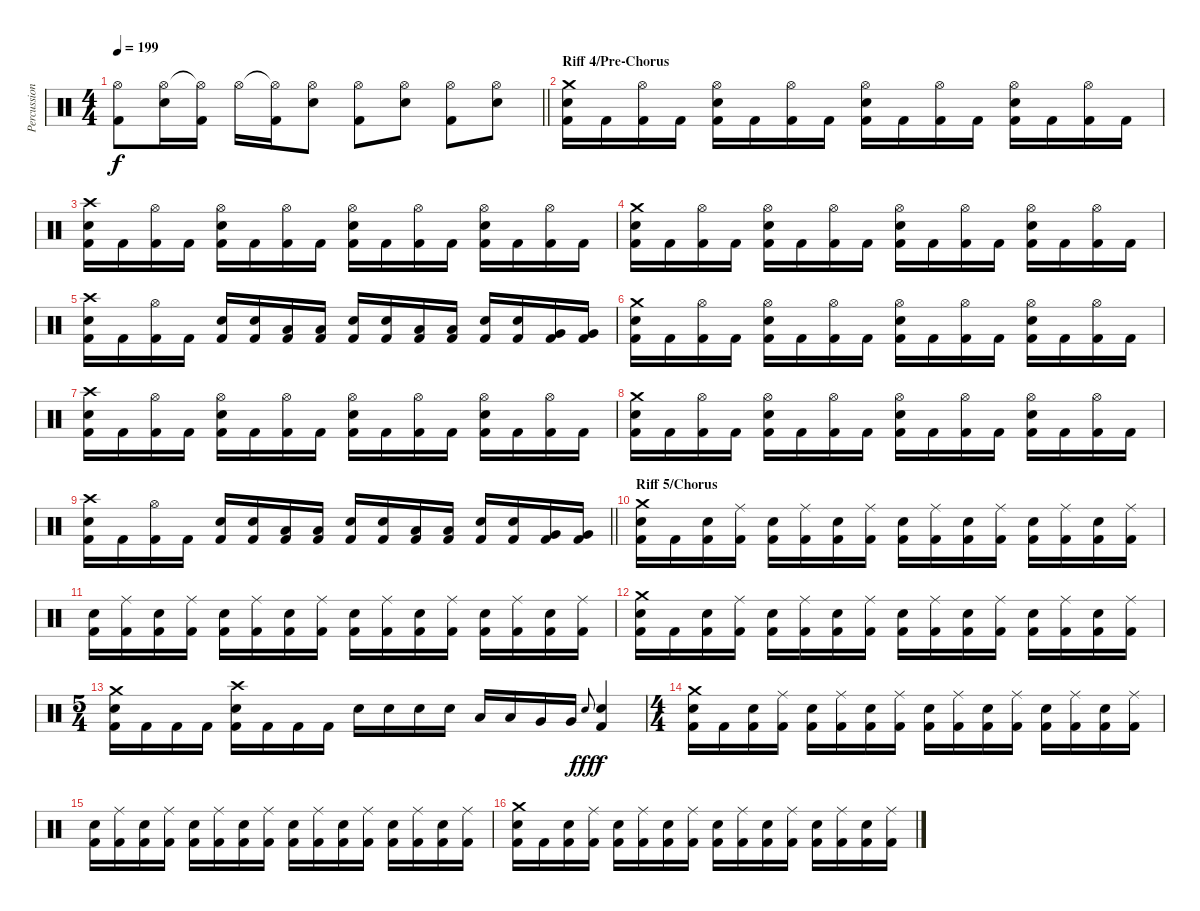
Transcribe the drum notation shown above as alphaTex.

\track ("Percussion" "Percussion") {instrument percussion}
\staff {score}
\articulation defaults
\ts (4 4)
\tempo 199
\clef neutral
\barLineRight lightlight
\ks c
("Hi-Hat (open)" "Kick (hit) 2").8{dy f} ("Hi-Hat (open)" "Electric Snare (hit)").16 ("Hi-Hat (open)"{t} "Kick (hit) 2").16 "Hi-Hat (open)".16 ("Hi-Hat (open)"{t} "Kick (hit) 2").16 ("Hi-Hat (open)" "Electric Snare (hit)").8 ("Hi-Hat (open)" "Kick (hit) 2").8 ("Hi-Hat (open)" "Electric Snare (hit)").8 ("Hi-Hat (open)" "Kick (hit) 2").8 ("Hi-Hat (open)" "Electric Snare (hit)").8 |
\section ("" "Riff 4/Pre-Chorus")
("Crash medium (hit)" "Electric Snare (hit)" "Kick (hit) 2").16 "Kick (hit) 2".16 ("Hi-Hat (open)" "Kick (hit) 2").16 "Kick (hit) 2".16 ("Hi-Hat (open)" "Electric Snare (hit)" "Kick (hit) 2").16 "Kick (hit) 2".16 ("Hi-Hat (open)" "Kick (hit) 2").16 "Kick (hit) 2".16 ("Hi-Hat (open)" "Electric Snare (hit)" "Kick (hit) 2").16 "Kick (hit) 2".16 ("Hi-Hat (open)" "Kick (hit) 2").16 "Kick (hit) 2".16 ("Hi-Hat (open)" "Electric Snare (hit)" "Kick (hit) 2").16 "Kick (hit) 2".16 ("Hi-Hat (open)" "Kick (hit) 2").16 "Kick (hit) 2".16 |
("Crash high (hit)" "Electric Snare (hit)" "Kick (hit) 2").16 "Kick (hit) 2".16 ("Hi-Hat (open)" "Kick (hit) 2").16 "Kick (hit) 2".16 ("Hi-Hat (open)" "Electric Snare (hit)" "Kick (hit) 2").16 "Kick (hit) 2".16 ("Hi-Hat (open)" "Kick (hit) 2").16 "Kick (hit) 2".16 ("Hi-Hat (open)" "Electric Snare (hit)" "Kick (hit) 2").16 "Kick (hit) 2".16 ("Hi-Hat (open)" "Kick (hit) 2").16 "Kick (hit) 2".16 ("Hi-Hat (open)" "Electric Snare (hit)" "Kick (hit) 2").16 "Kick (hit) 2".16 ("Hi-Hat (open)" "Kick (hit) 2").16 "Kick (hit) 2".16 |
("Crash medium (hit)" "Electric Snare (hit)" "Kick (hit) 2").16 "Kick (hit) 2".16 ("Hi-Hat (open)" "Kick (hit) 2").16 "Kick (hit) 2".16 ("Hi-Hat (open)" "Electric Snare (hit)" "Kick (hit) 2").16 "Kick (hit) 2".16 ("Hi-Hat (open)" "Kick (hit) 2").16 "Kick (hit) 2".16 ("Hi-Hat (open)" "Electric Snare (hit)" "Kick (hit) 2").16 "Kick (hit) 2".16 ("Hi-Hat (open)" "Kick (hit) 2").16 "Kick (hit) 2".16 ("Hi-Hat (open)" "Electric Snare (hit)" "Kick (hit) 2").16 "Kick (hit) 2".16 ("Hi-Hat (open)" "Kick (hit) 2").16 "Kick (hit) 2".16 |
("Crash high (hit)" "Electric Snare (hit)" "Kick (hit) 2").16 "Kick (hit) 2".16 ("Hi-Hat (open)" "Kick (hit) 2").16 "Kick (hit) 2".16 ("Electric Snare (hit)" "Kick (hit) 2").16 ("Electric Snare (hit)" "Kick (hit) 2").16 ("Low Tom (hit)" "Kick (hit) 2").16 ("Low Tom (hit)" "Kick (hit) 2").16 ("Electric Snare (hit)" "Kick (hit) 2").16 ("Electric Snare (hit)" "Kick (hit) 2").16 ("Low Floor Tom (hit)" "Kick (hit) 2").16 ("Low Floor Tom (hit)" "Kick (hit) 2").16 ("Electric Snare (hit)" "Kick (hit) 2").16 ("Electric Snare (hit)" "Kick (hit) 2").16 ("Very Low Tom (hit)" "Kick (hit) 2").16 ("Very Low Tom (hit)" "Kick (hit) 2").16 |
("Crash medium (hit)" "Electric Snare (hit)" "Kick (hit) 2").16 "Kick (hit) 2".16 ("Hi-Hat (open)" "Kick (hit) 2").16 "Kick (hit) 2".16 ("Hi-Hat (open)" "Electric Snare (hit)" "Kick (hit) 2").16 "Kick (hit) 2".16 ("Hi-Hat (open)" "Kick (hit) 2").16 "Kick (hit) 2".16 ("Hi-Hat (open)" "Electric Snare (hit)" "Kick (hit) 2").16 "Kick (hit) 2".16 ("Hi-Hat (open)" "Kick (hit) 2").16 "Kick (hit) 2".16 ("Hi-Hat (open)" "Electric Snare (hit)" "Kick (hit) 2").16 "Kick (hit) 2".16 ("Hi-Hat (open)" "Kick (hit) 2").16 "Kick (hit) 2".16 |
("Crash high (hit)" "Electric Snare (hit)" "Kick (hit) 2").16 "Kick (hit) 2".16 ("Hi-Hat (open)" "Kick (hit) 2").16 "Kick (hit) 2".16 ("Hi-Hat (open)" "Electric Snare (hit)" "Kick (hit) 2").16 "Kick (hit) 2".16 ("Hi-Hat (open)" "Kick (hit) 2").16 "Kick (hit) 2".16 ("Hi-Hat (open)" "Electric Snare (hit)" "Kick (hit) 2").16 "Kick (hit) 2".16 ("Hi-Hat (open)" "Kick (hit) 2").16 "Kick (hit) 2".16 ("Hi-Hat (open)" "Electric Snare (hit)" "Kick (hit) 2").16 "Kick (hit) 2".16 ("Hi-Hat (open)" "Kick (hit) 2").16 "Kick (hit) 2".16 |
("Crash medium (hit)" "Electric Snare (hit)" "Kick (hit) 2").16 "Kick (hit) 2".16 ("Hi-Hat (open)" "Kick (hit) 2").16 "Kick (hit) 2".16 ("Hi-Hat (open)" "Electric Snare (hit)" "Kick (hit) 2").16 "Kick (hit) 2".16 ("Hi-Hat (open)" "Kick (hit) 2").16 "Kick (hit) 2".16 ("Hi-Hat (open)" "Electric Snare (hit)" "Kick (hit) 2").16 "Kick (hit) 2".16 ("Hi-Hat (open)" "Kick (hit) 2").16 "Kick (hit) 2".16 ("Hi-Hat (open)" "Electric Snare (hit)" "Kick (hit) 2").16 "Kick (hit) 2".16 ("Hi-Hat (open)" "Kick (hit) 2").16 "Kick (hit) 2".16 |
\barLineRight lightlight
("Crash high (hit)" "Electric Snare (hit)" "Kick (hit) 2").16 "Kick (hit) 2".16 ("Hi-Hat (open)" "Kick (hit) 2").16 "Kick (hit) 2".16 ("Electric Snare (hit)" "Kick (hit) 2").16 ("Electric Snare (hit)" "Kick (hit) 2").16 ("Low Tom (hit)" "Kick (hit) 2").16 ("Low Tom (hit)" "Kick (hit) 2").16 ("Electric Snare (hit)" "Kick (hit) 2").16 ("Electric Snare (hit)" "Kick (hit) 2").16 ("Low Floor Tom (hit)" "Kick (hit) 2").16 ("Low Floor Tom (hit)" "Kick (hit) 2").16 ("Electric Snare (hit)" "Kick (hit) 2").16 ("Electric Snare (hit)" "Kick (hit) 2").16 ("Very Low Tom (hit)" "Kick (hit) 2").16 ("Very Low Tom (hit)" "Kick (hit) 2").16 |
\section ("" "Riff 5/Chorus")
("Crash medium (hit)" "Electric Snare (hit)" "Kick (hit) 2").16 "Kick (hit) 2".16 ("Electric Snare (hit)" "Kick (hit) 2").16 ("Ride (middle)" "Kick (hit) 2").16 ("Electric Snare (hit)" "Kick (hit) 2").16 ("Ride (middle)" "Kick (hit) 2").16 ("Electric Snare (hit)" "Kick (hit) 2").16 ("Ride (middle)" "Kick (hit) 2").16 ("Electric Snare (hit)" "Kick (hit) 2").16 ("Ride (middle)" "Kick (hit) 2").16 ("Electric Snare (hit)" "Kick (hit) 2").16 ("Ride (middle)" "Kick (hit) 2").16 ("Electric Snare (hit)" "Kick (hit) 2").16 ("Ride (middle)" "Kick (hit) 2").16 ("Electric Snare (hit)" "Kick (hit) 2").16 ("Ride (middle)" "Kick (hit) 2").16 |
("Electric Snare (hit)" "Kick (hit) 2").16 ("Ride (middle)" "Kick (hit) 2").16 ("Electric Snare (hit)" "Kick (hit) 2").16 ("Ride (middle)" "Kick (hit) 2").16 ("Electric Snare (hit)" "Kick (hit) 2").16 ("Ride (middle)" "Kick (hit) 2").16 ("Electric Snare (hit)" "Kick (hit) 2").16 ("Ride (middle)" "Kick (hit) 2").16 ("Electric Snare (hit)" "Kick (hit) 2").16 ("Ride (middle)" "Kick (hit) 2").16 ("Electric Snare (hit)" "Kick (hit) 2").16 ("Ride (middle)" "Kick (hit) 2").16 ("Electric Snare (hit)" "Kick (hit) 2").16 ("Ride (middle)" "Kick (hit) 2").16 ("Electric Snare (hit)" "Kick (hit) 2").16 ("Ride (middle)" "Kick (hit) 2").16 |
("Crash medium (hit)" "Electric Snare (hit)" "Kick (hit) 2").16 "Kick (hit) 2".16 ("Electric Snare (hit)" "Kick (hit) 2").16 ("Ride (middle)" "Kick (hit) 2").16 ("Electric Snare (hit)" "Kick (hit) 2").16 ("Ride (middle)" "Kick (hit) 2").16 ("Electric Snare (hit)" "Kick (hit) 2").16 ("Ride (middle)" "Kick (hit) 2").16 ("Electric Snare (hit)" "Kick (hit) 2").16 ("Ride (middle)" "Kick (hit) 2").16 ("Electric Snare (hit)" "Kick (hit) 2").16 ("Ride (middle)" "Kick (hit) 2").16 ("Electric Snare (hit)" "Kick (hit) 2").16 ("Ride (middle)" "Kick (hit) 2").16 ("Electric Snare (hit)" "Kick (hit) 2").16 ("Ride (middle)" "Kick (hit) 2").16 |
\ts (5 4)
("Crash medium (hit)" "Electric Snare (hit)" "Kick (hit) 2").16 "Kick (hit) 2".16 "Kick (hit) 2".16 "Kick (hit) 2".16 ("Crash high (hit)" "Electric Snare (hit)" "Kick (hit) 2").16 "Kick (hit) 2".16 "Kick (hit) 2".16 "Kick (hit) 2".16 "Electric Snare (hit)".16 "Electric Snare (hit)".16 "Electric Snare (hit)".16 "Electric Snare (hit)".16 "Low Floor Tom (hit)".16 "Low Floor Tom (hit)".16 "Very Low Tom (hit)".16 "Very Low Tom (hit)".16 "Electric Snare (hit)".8{gr onbeat dy fff} ("Electric Snare (hit)" "Kick (hit) 2").4{dy f} |
\ts (4 4)
("Crash medium (hit)" "Electric Snare (hit)" "Kick (hit) 2").16 "Kick (hit) 2".16 ("Electric Snare (hit)" "Kick (hit) 2").16 ("Ride (middle)" "Kick (hit) 2").16 ("Electric Snare (hit)" "Kick (hit) 2").16 ("Ride (middle)" "Kick (hit) 2").16 ("Electric Snare (hit)" "Kick (hit) 2").16 ("Ride (middle)" "Kick (hit) 2").16 ("Electric Snare (hit)" "Kick (hit) 2").16 ("Ride (middle)" "Kick (hit) 2").16 ("Electric Snare (hit)" "Kick (hit) 2").16 ("Ride (middle)" "Kick (hit) 2").16 ("Electric Snare (hit)" "Kick (hit) 2").16 ("Ride (middle)" "Kick (hit) 2").16 ("Electric Snare (hit)" "Kick (hit) 2").16 ("Ride (middle)" "Kick (hit) 2").16 |
("Electric Snare (hit)" "Kick (hit) 2").16 ("Ride (middle)" "Kick (hit) 2").16 ("Electric Snare (hit)" "Kick (hit) 2").16 ("Ride (middle)" "Kick (hit) 2").16 ("Electric Snare (hit)" "Kick (hit) 2").16 ("Ride (middle)" "Kick (hit) 2").16 ("Electric Snare (hit)" "Kick (hit) 2").16 ("Ride (middle)" "Kick (hit) 2").16 ("Electric Snare (hit)" "Kick (hit) 2").16 ("Ride (middle)" "Kick (hit) 2").16 ("Electric Snare (hit)" "Kick (hit) 2").16 ("Ride (middle)" "Kick (hit) 2").16 ("Electric Snare (hit)" "Kick (hit) 2").16 ("Ride (middle)" "Kick (hit) 2").16 ("Electric Snare (hit)" "Kick (hit) 2").16 ("Ride (middle)" "Kick (hit) 2").16 |
("Crash medium (hit)" "Electric Snare (hit)" "Kick (hit) 2").16 "Kick (hit) 2".16 ("Electric Snare (hit)" "Kick (hit) 2").16 ("Ride (middle)" "Kick (hit) 2").16 ("Electric Snare (hit)" "Kick (hit) 2").16 ("Ride (middle)" "Kick (hit) 2").16 ("Electric Snare (hit)" "Kick (hit) 2").16 ("Ride (middle)" "Kick (hit) 2").16 ("Electric Snare (hit)" "Kick (hit) 2").16 ("Ride (middle)" "Kick (hit) 2").16 ("Electric Snare (hit)" "Kick (hit) 2").16 ("Ride (middle)" "Kick (hit) 2").16 ("Electric Snare (hit)" "Kick (hit) 2").16 ("Ride (middle)" "Kick (hit) 2").16 ("Electric Snare (hit)" "Kick (hit) 2").16 ("Ride (middle)" "Kick (hit) 2").16
